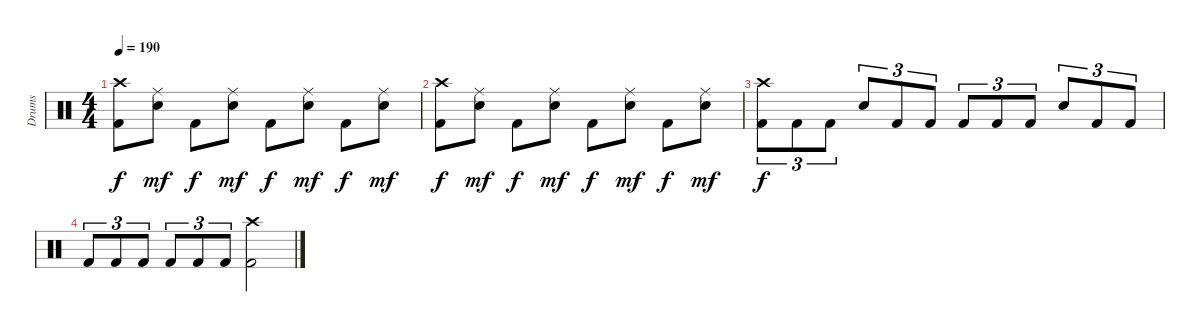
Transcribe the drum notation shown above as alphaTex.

\track ("Drums" "Drums") {instrument percussion}
\staff {score}
\articulation defaults
\ts (4 4)
\tempo 190
\clef neutral
\ks c
("Crash high (hit)" "Kick (hit) 2").8{dy f} ("Ride (middle)" "Snare (hit) 2").8{dy mf} "Kick (hit) 2".8{dy f} ("Ride (middle)" "Snare (hit) 2").8{dy mf} "Kick (hit) 2".8{dy f} ("Ride (middle)" "Snare (hit) 2").8{dy mf} "Kick (hit) 2".8{dy f} ("Ride (middle)" "Snare (hit) 2").8{dy mf} |
("Crash high (hit)" "Kick (hit) 2").8{dy f} ("Ride (middle)" "Snare (hit) 2").8{dy mf} "Kick (hit) 2".8{dy f} ("Ride (middle)" "Snare (hit) 2").8{dy mf} "Kick (hit) 2".8{dy f} ("Ride (middle)" "Snare (hit) 2").8{dy mf} "Kick (hit) 2".8{dy f} ("Ride (middle)" "Snare (hit) 2").8{dy mf} |
("Crash high (hit)" "Kick (hit) 2").8{tu (3 2) dy f} "Kick (hit) 2".8{tu (3 2)} "Kick (hit) 2".8{tu (3 2)} "Snare (hit) 2".8{tu (3 2)} "Kick (hit) 2".8{tu (3 2)} "Kick (hit) 2".8{tu (3 2)} "Kick (hit) 2".8{tu (3 2)} "Kick (hit) 2".8{tu (3 2)} "Kick (hit) 2".8{tu (3 2)} "Snare (hit) 2".8{tu (3 2)} "Kick (hit) 2".8{tu (3 2)} "Kick (hit) 2".8{tu (3 2)} |
"Kick (hit) 2".8{tu (3 2)} "Kick (hit) 2".8{tu (3 2)} "Kick (hit) 2".8{tu (3 2)} "Kick (hit) 2".8{tu (3 2)} "Kick (hit) 2".8{tu (3 2)} "Kick (hit) 2".8{tu (3 2)} ("Crash high (hit)" "Kick (hit) 2").2
